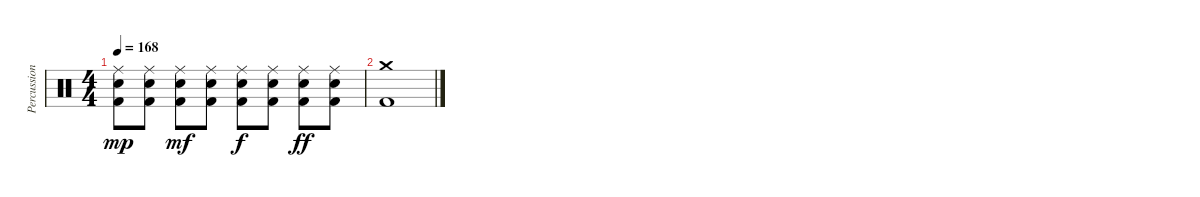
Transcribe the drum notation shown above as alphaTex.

\track ("Percussion" "Percussion") {instrument percussion}
\staff {score}
\articulation defaults
\ts (4 4)
\tempo 168
\clef neutral
\ks c
("Ride (middle)" "Snare (hit) 2" "Kick (hit) 2").8{dy mp} ("Ride (middle)" "Snare (hit) 2" "Kick (hit) 2").8 ("Ride (middle)" "Snare (hit) 2" "Kick (hit) 2").8{dy mf} ("Ride (middle)" "Snare (hit) 2" "Kick (hit) 2").8 ("Ride (middle)" "Snare (hit) 2" "Kick (hit) 2").8{dy f} ("Ride (middle)" "Snare (hit) 2" "Kick (hit) 2").8 ("Ride (middle)" "Snare (hit) 2" "Kick (hit) 2").8{dy ff} ("Ride (middle)" "Snare (hit) 2" "Kick (hit) 2").8 |
("Crash medium (hit)" "Kick (hit) 2").1
